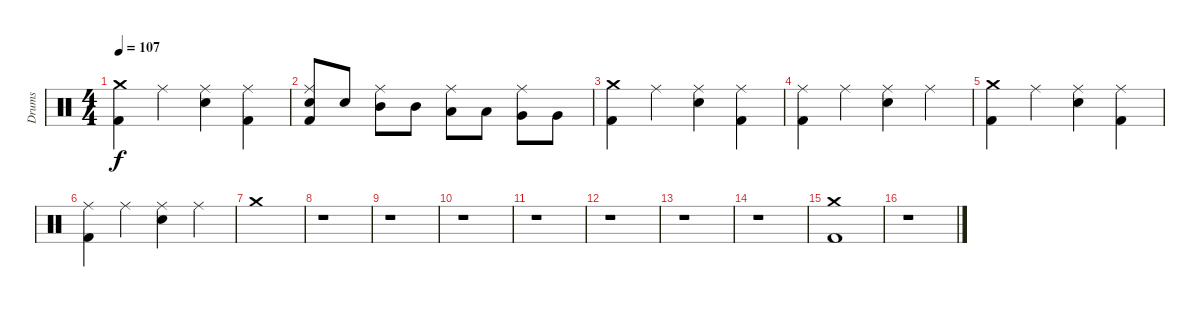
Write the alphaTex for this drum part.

\track ("Drums" "Drums") {instrument percussion}
\staff {score}
\articulation defaults
\ts (4 4)
\tempo 107
\clef neutral
\ks c
("Crash medium (hit)" "Kick (hit) 2").4{dy f} "Ride (middle)".4 ("Ride (middle)" "Electric Snare (hit)").4 ("Ride (middle)" "Kick (hit) 2").4 |
("Ride (middle)" "Electric Snare (hit)" "Kick (hit) 2").8 "Electric Snare (hit)".8 ("Ride (middle)" "Mid Tom (hit)").8 "Mid Tom (hit)".8 ("Ride (middle)" "Low Tom (hit)").8 "Low Tom (hit)".8 ("Ride (middle)" "Very Low Tom (hit)").8 "Very Low Tom (hit)".8 |
("Crash medium (hit)" "Kick (hit) 2").4 "Ride (middle)".4 ("Ride (middle)" "Electric Snare (hit)").4 ("Ride (middle)" "Kick (hit) 2").4 |
("Ride (middle)" "Kick (hit) 2").4 "Ride (middle)".4 ("Ride (middle)" "Electric Snare (hit)").4 "Ride (middle)".4 |
("Crash medium (hit)" "Kick (hit) 2").4 "Ride (middle)".4 ("Ride (middle)" "Electric Snare (hit)").4 ("Ride (middle)" "Kick (hit) 2").4 |
("Ride (middle)" "Kick (hit) 2").4 "Ride (middle)".4 ("Ride (middle)" "Electric Snare (hit)").4 "Ride (middle)".4 |
"Crash medium (hit)".1 |
r.1 |
r.1 |
r.1 |
r.1 |
r.1 |
r.1 |
r.1 |
("Crash medium (hit)" "Kick (hit) 2").1 |
r.1
